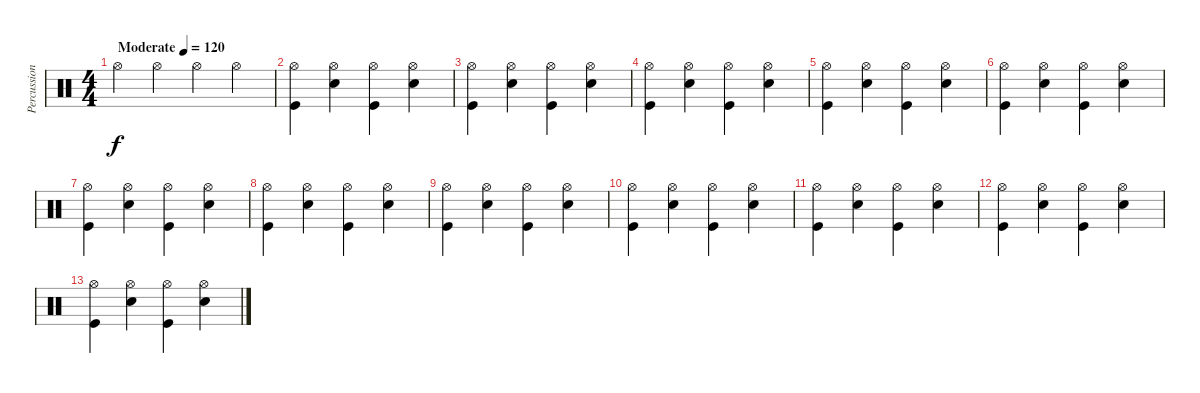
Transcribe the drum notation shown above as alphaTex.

\track ("Percussion" "Percussion") {instrument percussion}
\staff {score}
\articulation defaults
\ts (4 4)
\tempo (120 "Moderate")
\clef neutral
\ks c "Hi-Hat (open)".4{dy f} "Hi-Hat (open)".4 "Hi-Hat (open)".4 "Hi-Hat (open)".4
|
("Hi-Hat (open)" "Kick (hit)").4 ("Hi-Hat (open)" "Snare (hit) 2").4 ("Hi-Hat (open)" "Kick (hit)").4 ("Hi-Hat (open)" "Snare (hit) 2").4 |
("Hi-Hat (open)" "Kick (hit)").4 ("Hi-Hat (open)" "Snare (hit) 2").4 ("Hi-Hat (open)" "Kick (hit)").4 ("Hi-Hat (open)" "Snare (hit) 2").4 |
("Hi-Hat (open)" "Kick (hit)").4 ("Hi-Hat (open)" "Snare (hit) 2").4 ("Hi-Hat (open)" "Kick (hit)").4 ("Hi-Hat (open)" "Snare (hit) 2").4 |
("Hi-Hat (open)" "Kick (hit)").4 ("Hi-Hat (open)" "Snare (hit) 2").4 ("Hi-Hat (open)" "Kick (hit)").4 ("Hi-Hat (open)" "Snare (hit) 2").4 |
("Hi-Hat (open)" "Kick (hit)").4 ("Hi-Hat (open)" "Snare (hit) 2").4 ("Hi-Hat (open)" "Kick (hit)").4 ("Hi-Hat (open)" "Snare (hit) 2").4 |
("Hi-Hat (open)" "Kick (hit)").4 ("Hi-Hat (open)" "Snare (hit) 2").4 ("Hi-Hat (open)" "Kick (hit)").4 ("Hi-Hat (open)" "Snare (hit) 2").4 |
("Hi-Hat (open)" "Kick (hit)").4 ("Hi-Hat (open)" "Snare (hit) 2").4 ("Hi-Hat (open)" "Kick (hit)").4 ("Hi-Hat (open)" "Snare (hit) 2").4 |
("Hi-Hat (open)" "Kick (hit)").4 ("Hi-Hat (open)" "Snare (hit) 2").4 ("Hi-Hat (open)" "Kick (hit)").4 ("Hi-Hat (open)" "Snare (hit) 2").4 |
("Hi-Hat (open)" "Kick (hit)").4 ("Hi-Hat (open)" "Snare (hit) 2").4 ("Hi-Hat (open)" "Kick (hit)").4 ("Hi-Hat (open)" "Snare (hit) 2").4 |
("Hi-Hat (open)" "Kick (hit)").4 ("Hi-Hat (open)" "Snare (hit) 2").4 ("Hi-Hat (open)" "Kick (hit)").4 ("Hi-Hat (open)" "Snare (hit) 2").4 |
("Hi-Hat (open)" "Kick (hit)").4 ("Hi-Hat (open)" "Snare (hit) 2").4 ("Hi-Hat (open)" "Kick (hit)").4 ("Hi-Hat (open)" "Snare (hit) 2").4 |
("Hi-Hat (open)" "Kick (hit)").4 ("Hi-Hat (open)" "Snare (hit) 2").4 ("Hi-Hat (open)" "Kick (hit)").4 ("Hi-Hat (open)" "Snare (hit) 2").4
